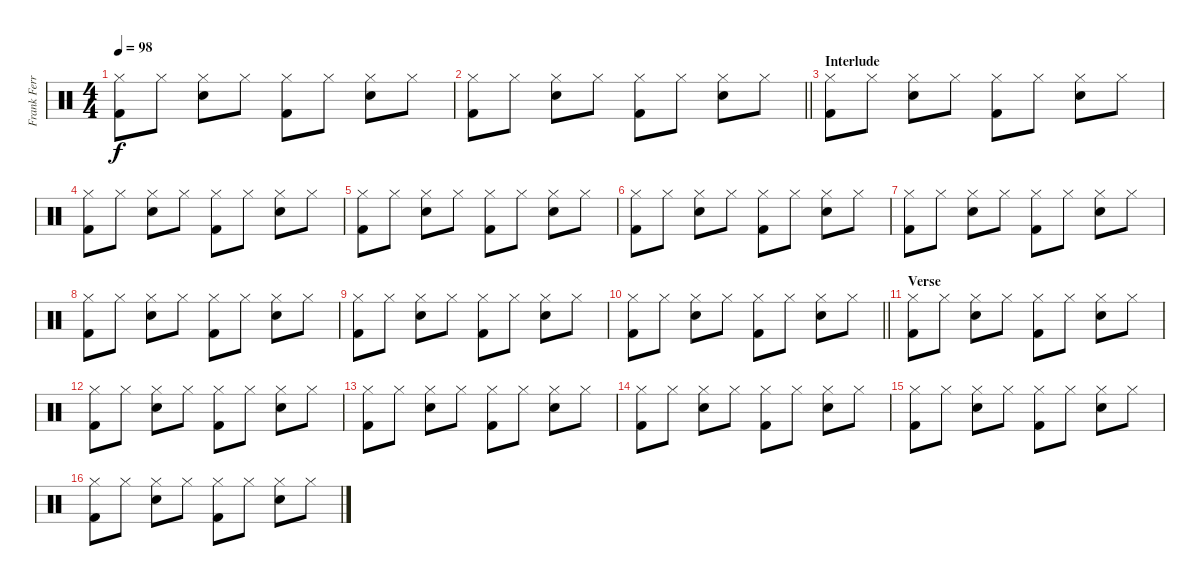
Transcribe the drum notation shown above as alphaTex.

\track ("Frank Ferrer" "Frank Ferr") {instrument percussion}
\staff {score}
\articulation defaults
\ts (4 4)
\tempo 98
\clef neutral
\ks c
("Hi-Hat (closed)" "Kick (hit) 2").8{dy f volume 13} "Hi-Hat (closed)".8 ("Hi-Hat (closed)" "Snare (hit) 2").8 "Hi-Hat (closed)".8 ("Hi-Hat (closed)" "Kick (hit) 2").8 "Hi-Hat (closed)".8 ("Hi-Hat (closed)" "Snare (hit) 2").8 "Hi-Hat (closed)".8 |
\barLineRight lightlight
("Hi-Hat (closed)" "Kick (hit) 2").8 "Hi-Hat (closed)".8 ("Hi-Hat (closed)" "Snare (hit) 2").8 "Hi-Hat (closed)".8 ("Hi-Hat (closed)" "Kick (hit) 2").8 "Hi-Hat (closed)".8 ("Hi-Hat (closed)" "Snare (hit) 2").8 "Hi-Hat (closed)".8 |
\section ("" "Interlude")
("Hi-Hat (closed)" "Kick (hit) 2").8{volume 13} "Hi-Hat (closed)".8 ("Hi-Hat (closed)" "Snare (hit) 2").8 "Hi-Hat (closed)".8 ("Hi-Hat (closed)" "Kick (hit) 2").8 "Hi-Hat (closed)".8 ("Hi-Hat (closed)" "Snare (hit) 2").8 "Hi-Hat (closed)".8 |
("Hi-Hat (closed)" "Kick (hit) 2").8 "Hi-Hat (closed)".8 ("Hi-Hat (closed)" "Snare (hit) 2").8 "Hi-Hat (closed)".8 ("Hi-Hat (closed)" "Kick (hit) 2").8 "Hi-Hat (closed)".8 ("Hi-Hat (closed)" "Snare (hit) 2").8 "Hi-Hat (closed)".8 |
("Hi-Hat (closed)" "Kick (hit) 2").8{volume 13} "Hi-Hat (closed)".8 ("Hi-Hat (closed)" "Snare (hit) 2").8 "Hi-Hat (closed)".8 ("Hi-Hat (closed)" "Kick (hit) 2").8 "Hi-Hat (closed)".8 ("Hi-Hat (closed)" "Snare (hit) 2").8 "Hi-Hat (closed)".8 |
("Hi-Hat (closed)" "Kick (hit) 2").8 "Hi-Hat (closed)".8 ("Hi-Hat (closed)" "Snare (hit) 2").8 "Hi-Hat (closed)".8 ("Hi-Hat (closed)" "Kick (hit) 2").8 "Hi-Hat (closed)".8 ("Hi-Hat (closed)" "Snare (hit) 2").8 "Hi-Hat (closed)".8 |
("Hi-Hat (closed)" "Kick (hit) 2").8{volume 13} "Hi-Hat (closed)".8 ("Hi-Hat (closed)" "Snare (hit) 2").8 "Hi-Hat (closed)".8 ("Hi-Hat (closed)" "Kick (hit) 2").8 "Hi-Hat (closed)".8 ("Hi-Hat (closed)" "Snare (hit) 2").8 "Hi-Hat (closed)".8 |
("Hi-Hat (closed)" "Kick (hit) 2").8 "Hi-Hat (closed)".8 ("Hi-Hat (closed)" "Snare (hit) 2").8 "Hi-Hat (closed)".8 ("Hi-Hat (closed)" "Kick (hit) 2").8 "Hi-Hat (closed)".8 ("Hi-Hat (closed)" "Snare (hit) 2").8 "Hi-Hat (closed)".8 |
("Hi-Hat (closed)" "Kick (hit) 2").8{volume 13} "Hi-Hat (closed)".8 ("Hi-Hat (closed)" "Snare (hit) 2").8 "Hi-Hat (closed)".8 ("Hi-Hat (closed)" "Kick (hit) 2").8 "Hi-Hat (closed)".8 ("Hi-Hat (closed)" "Snare (hit) 2").8 "Hi-Hat (closed)".8 |
\barLineRight lightlight
("Hi-Hat (closed)" "Kick (hit) 2").8 "Hi-Hat (closed)".8 ("Hi-Hat (closed)" "Snare (hit) 2").8 "Hi-Hat (closed)".8 ("Hi-Hat (closed)" "Kick (hit) 2").8 "Hi-Hat (closed)".8 ("Hi-Hat (closed)" "Snare (hit) 2").8 "Hi-Hat (closed)".8 |
\section ("" "Verse")
("Hi-Hat (closed)" "Kick (hit) 2").8{volume 13} "Hi-Hat (closed)".8 ("Hi-Hat (closed)" "Snare (hit) 2").8 "Hi-Hat (closed)".8 ("Hi-Hat (closed)" "Kick (hit) 2").8 "Hi-Hat (closed)".8 ("Hi-Hat (closed)" "Snare (hit) 2").8 "Hi-Hat (closed)".8 |
("Hi-Hat (closed)" "Kick (hit) 2").8 "Hi-Hat (closed)".8 ("Hi-Hat (closed)" "Snare (hit) 2").8 "Hi-Hat (closed)".8 ("Hi-Hat (closed)" "Kick (hit) 2").8 "Hi-Hat (closed)".8 ("Hi-Hat (closed)" "Snare (hit) 2").8 "Hi-Hat (closed)".8 |
("Hi-Hat (closed)" "Kick (hit) 2").8{volume 13} "Hi-Hat (closed)".8 ("Hi-Hat (closed)" "Snare (hit) 2").8 "Hi-Hat (closed)".8 ("Hi-Hat (closed)" "Kick (hit) 2").8 "Hi-Hat (closed)".8 ("Hi-Hat (closed)" "Snare (hit) 2").8 "Hi-Hat (closed)".8 |
("Hi-Hat (closed)" "Kick (hit) 2").8{volume 13} "Hi-Hat (closed)".8 ("Hi-Hat (closed)" "Snare (hit) 2").8 "Hi-Hat (closed)".8 ("Hi-Hat (closed)" "Kick (hit) 2").8 "Hi-Hat (closed)".8 ("Hi-Hat (closed)" "Snare (hit) 2").8 "Hi-Hat (closed)".8 |
("Hi-Hat (closed)" "Kick (hit) 2").8 "Hi-Hat (closed)".8 ("Hi-Hat (closed)" "Snare (hit) 2").8 "Hi-Hat (closed)".8 ("Hi-Hat (closed)" "Kick (hit) 2").8 "Hi-Hat (closed)".8 ("Hi-Hat (closed)" "Snare (hit) 2").8 "Hi-Hat (closed)".8 |
("Hi-Hat (closed)" "Kick (hit) 2").8{volume 13} "Hi-Hat (closed)".8 ("Hi-Hat (closed)" "Snare (hit) 2").8 "Hi-Hat (closed)".8 ("Hi-Hat (closed)" "Kick (hit) 2").8 "Hi-Hat (closed)".8 ("Hi-Hat (closed)" "Snare (hit) 2").8 "Hi-Hat (closed)".8
